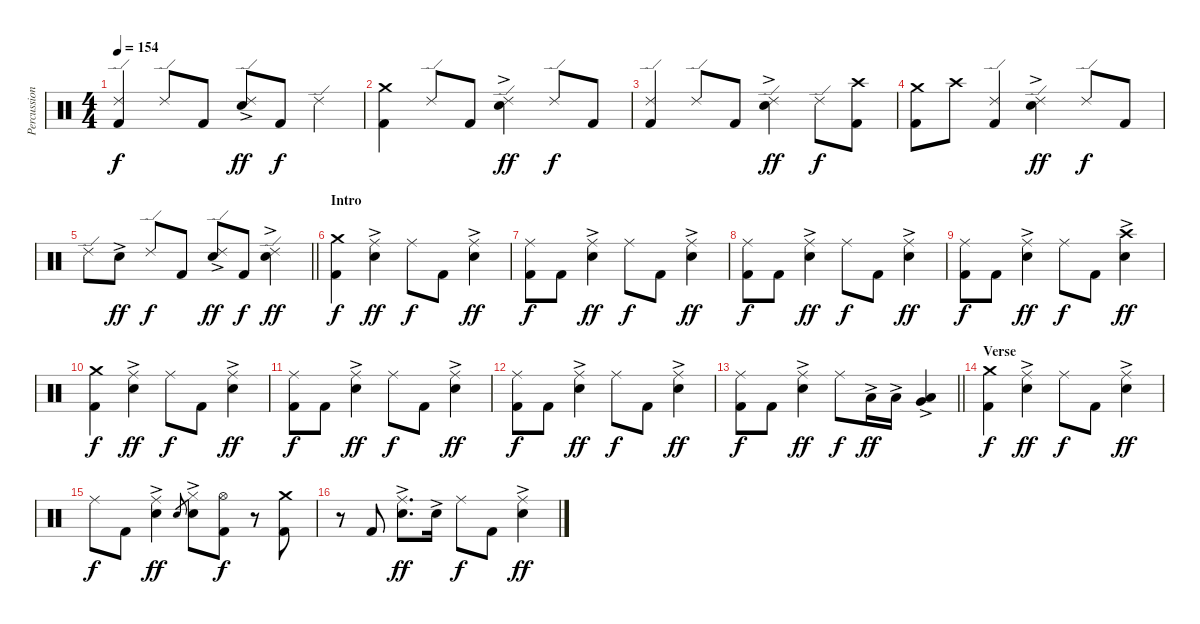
\track ("Percussion" "Percussion") {instrument percussion}
\staff {score}
\articulation defaults
\ts (4 4)
\tempo 154
\clef neutral
\ks c
("Ride (edge) 2" "Kick (hit) 2").4{dy f} "Ride (edge) 2".8 "Kick (hit) 2".8 ("Ride (edge) 2" "Electric Snare (hit)"{ac}).8{dy ff} "Kick (hit) 2".8{dy f} "Ride (edge) 2".4 |
("Crash medium (hit)" "Kick (hit) 2").4 "Ride (edge) 2".8 "Kick (hit) 2".8 ("Ride (edge) 2" "Electric Snare (hit)"{ac}).4{dy ff} "Ride (edge) 2".8{dy f} "Kick (hit) 2".8 |
("Ride (edge) 2" "Kick (hit) 2").4 "Ride (edge) 2".8 "Kick (hit) 2".8 ("Ride (edge) 2" "Electric Snare (hit)"{ac}).4{dy ff} "Ride (edge) 2".8{dy f} ("Crash high (hit)" "Kick (hit) 2").8 |
("Crash medium (hit)" "Kick (hit) 2").8 "Crash high (hit)".8 ("Ride (edge) 2" "Kick (hit) 2").4 ("Ride (edge) 2" "Electric Snare (hit)"{ac}).4{dy ff} "Ride (edge) 2".8{dy f} "Kick (hit) 2".8 |
\barLineRight lightlight "Ride (edge) 2".8 "Electric Snare (hit)"{ac}.8{dy ff} "Ride (edge) 2".8{dy f} "Kick (hit) 2".8
("Ride (edge) 2" "Electric Snare (hit)"{ac}).8{dy ff} "Kick (hit) 2".8{dy f} ("Ride (edge) 2" "Electric Snare (hit)"{ac}).4{dy ff} |
\section ("" "Intro")
("Crash medium (hit)" "Kick (hit) 2").4{dy f} ("Ride (middle)" "Electric Snare (hit)"{ac}).4{dy ff} "Ride (middle)".8{dy f} "Kick (hit) 2".8 ("Ride (middle)" "Electric Snare (hit)"{ac}).4{dy ff} |
("Ride (middle)" "Kick (hit) 2").8{dy f} "Kick (hit) 2".8 ("Ride (middle)" "Electric Snare (hit)"{ac}).4{dy ff} "Ride (middle)".8{dy f} "Kick (hit) 2".8 ("Ride (middle)" "Electric Snare (hit)"{ac}).4{dy ff} |
("Ride (middle)" "Kick (hit) 2").8{dy f} "Kick (hit) 2".8 ("Ride (middle)" "Electric Snare (hit)"{ac}).4{dy ff} "Ride (middle)".8{dy f} "Kick (hit) 2".8 ("Ride (middle)" "Electric Snare (hit)"{ac}).4{dy ff} |
("Ride (middle)" "Kick (hit) 2").8{dy f} "Kick (hit) 2".8 ("Ride (middle)" "Electric Snare (hit)"{ac}).4{dy ff} "Ride (middle)".8{dy f} "Kick (hit) 2".8 ("Crash high (hit)" "Electric Snare (hit)"{ac}).4{dy ff} |
("Crash medium (hit)" "Kick (hit) 2").4{dy f} ("Ride (middle)" "Electric Snare (hit)"{ac}).4{dy ff} "Ride (middle)".8{dy f} "Kick (hit) 2".8 ("Ride (middle)" "Electric Snare (hit)"{ac}).4{dy ff} |
("Ride (middle)" "Kick (hit) 2").8{dy f} "Kick (hit) 2".8 ("Ride (middle)" "Electric Snare (hit)"{ac}).4{dy ff} "Ride (middle)".8{dy f} "Kick (hit) 2".8 ("Ride (middle)" "Electric Snare (hit)"{ac}).4{dy ff} |
("Ride (middle)" "Kick (hit) 2").8{dy f} "Kick (hit) 2".8 ("Ride (middle)" "Electric Snare (hit)"{ac}).4{dy ff} "Ride (middle)".8{dy f} "Kick (hit) 2".8 ("Ride (middle)" "Electric Snare (hit)"{ac}).4{dy ff} |
\barLineRight lightlight
("Ride (middle)" "Kick (hit) 2").8{dy f} "Kick (hit) 2".8 ("Ride (middle)" "Electric Snare (hit)"{ac}).4{dy ff} "Ride (middle)".8{dy f} "Low Tom (hit)"{ac}.16{dy ff} "Low Tom (hit)"{ac}.16 ("Low Tom (hit)"{ac} "Very Low Tom (hit)"{ac}).4 |
\section ("" "Verse")
("Crash medium (hit)" "Kick (hit) 2").4{dy f} ("Ride (middle)" "Electric Snare (hit)"{ac}).4{dy ff} "Ride (middle)".8{dy f} "Kick (hit) 2".8 ("Ride (middle)" "Electric Snare (hit)"{ac}).4{dy ff} |
"Ride (middle)".8{dy f} "Kick (hit) 2".8 ("Ride (middle)" "Electric Snare (hit)"{ac}).4{dy ff} "Electric Snare (hit)".8{gr} ("Hi-Hat (closed)" "Electric Snare (hit)"{ac}).8 ("Hi-Hat (open)" "Kick (hit) 2").8{dy f} r.8 ("Crash medium (hit)" "Kick (hit) 2").8 |
r.8 "Kick (hit) 2".8 ("Ride (middle)" "Electric Snare (hit)"{ac}).8{d dy ff} "Electric Snare (hit)"{ac}.16 "Ride (middle)".8{dy f} "Kick (hit) 2".8 ("Ride (middle)" "Electric Snare (hit)"{ac}).4{dy ff}
